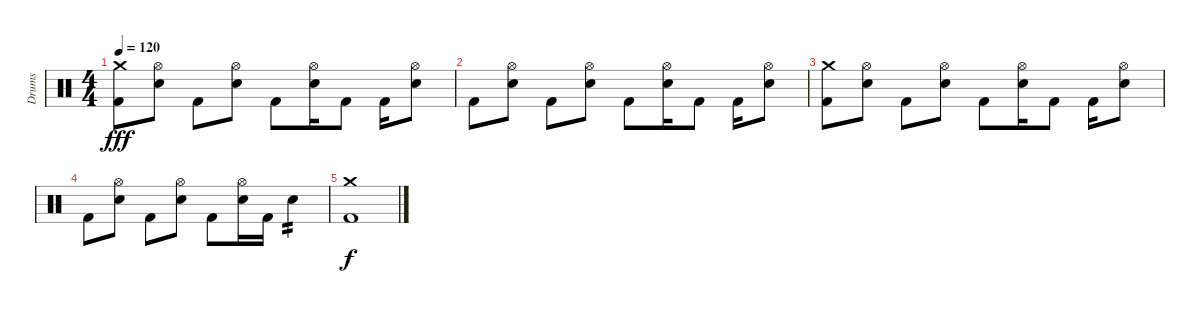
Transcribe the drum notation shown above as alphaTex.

\track ("Drums" "Drums") {instrument percussion}
\staff {score}
\articulation defaults
\ts (4 4)
\tempo 120
\clef neutral
\ks c
("Crash medium (hit)" "Kick (hit) 2").8{dy fff} ("Hi-Hat (open)" "Snare (hit) 2").8 "Kick (hit) 2".8 ("Hi-Hat (open)" "Snare (hit) 2").8 "Kick (hit) 2".8 ("Hi-Hat (open)" "Snare (hit) 2").16 "Kick (hit) 2".8 "Kick (hit) 2".16 ("Hi-Hat (open)" "Snare (hit) 2").8 |
"Kick (hit) 2".8 ("Hi-Hat (open)" "Snare (hit) 2").8 "Kick (hit) 2".8 ("Hi-Hat (open)" "Snare (hit) 2").8 "Kick (hit) 2".8 ("Hi-Hat (open)" "Snare (hit) 2").16 "Kick (hit) 2".8 "Kick (hit) 2".16 ("Hi-Hat (open)" "Snare (hit) 2").8 |
("Crash medium (hit)" "Kick (hit) 2").8 ("Hi-Hat (open)" "Snare (hit) 2").8 "Kick (hit) 2".8 ("Hi-Hat (open)" "Snare (hit) 2").8 "Kick (hit) 2".8 ("Hi-Hat (open)" "Snare (hit) 2").16 "Kick (hit) 2".8 "Kick (hit) 2".16 ("Hi-Hat (open)" "Snare (hit) 2").8 |
"Kick (hit) 2".8 ("Hi-Hat (open)" "Snare (hit) 2").8 "Kick (hit) 2".8 ("Hi-Hat (open)" "Snare (hit) 2").8 "Kick (hit) 2".8 ("Hi-Hat (open)" "Snare (hit) 2").16 "Kick (hit) 2".16 "Snare (hit) 2".4{tp 2} |
("Crash medium (hit)" "Kick (hit) 2").1{dy f}
